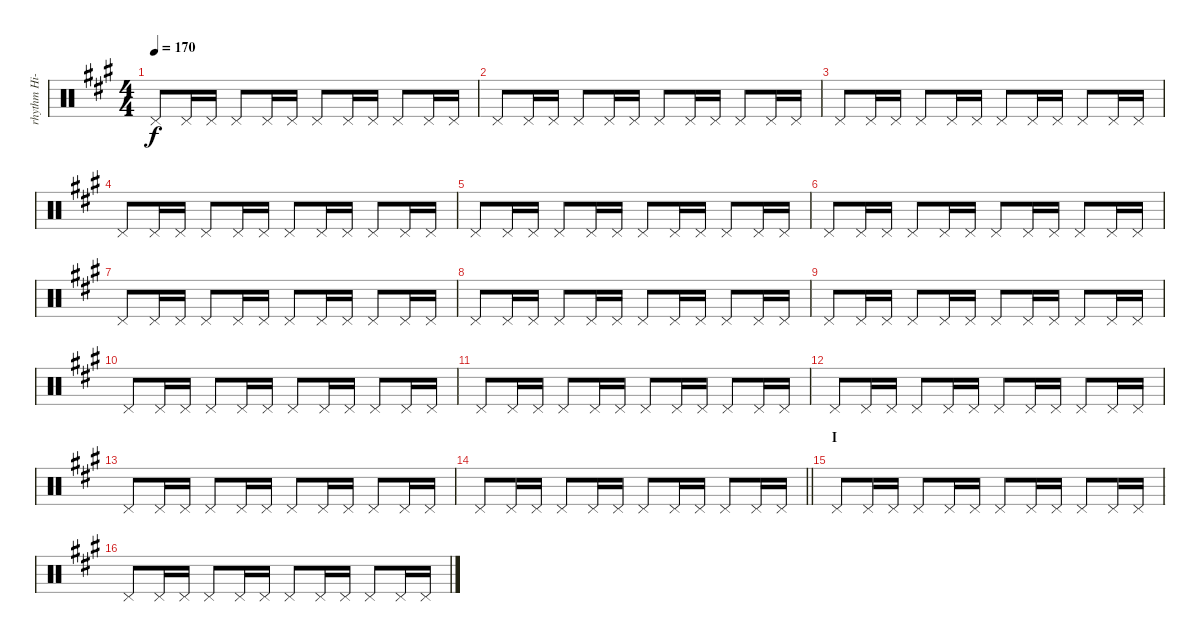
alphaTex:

\track ("rhythm Hi-hat" "rhythm Hi-") {instrument percussion}
\staff {score}
\articulation defaults
\ts (4 4)
\tempo 170
\clef neutral
\ks a "Pedal Hi-Hat (hit)".8{dy f} "Pedal Hi-Hat (hit)".16 "Pedal Hi-Hat (hit)".16 "Pedal Hi-Hat (hit)".8 "Pedal Hi-Hat (hit)".16 "Pedal Hi-Hat (hit)".16 "Pedal Hi-Hat (hit)".8 "Pedal Hi-Hat (hit)".16 "Pedal Hi-Hat (hit)".16 "Pedal Hi-Hat (hit)".8 "Pedal Hi-Hat (hit)".16 "Pedal Hi-Hat (hit)".16
|
"Pedal Hi-Hat (hit)".8 "Pedal Hi-Hat (hit)".16 "Pedal Hi-Hat (hit)".16 "Pedal Hi-Hat (hit)".8 "Pedal Hi-Hat (hit)".16 "Pedal Hi-Hat (hit)".16 "Pedal Hi-Hat (hit)".8 "Pedal Hi-Hat (hit)".16 "Pedal Hi-Hat (hit)".16 "Pedal Hi-Hat (hit)".8 "Pedal Hi-Hat (hit)".16 "Pedal Hi-Hat (hit)".16 |
"Pedal Hi-Hat (hit)".8 "Pedal Hi-Hat (hit)".16 "Pedal Hi-Hat (hit)".16 "Pedal Hi-Hat (hit)".8 "Pedal Hi-Hat (hit)".16 "Pedal Hi-Hat (hit)".16 "Pedal Hi-Hat (hit)".8 "Pedal Hi-Hat (hit)".16 "Pedal Hi-Hat (hit)".16 "Pedal Hi-Hat (hit)".8 "Pedal Hi-Hat (hit)".16 "Pedal Hi-Hat (hit)".16 |
"Pedal Hi-Hat (hit)".8 "Pedal Hi-Hat (hit)".16 "Pedal Hi-Hat (hit)".16 "Pedal Hi-Hat (hit)".8 "Pedal Hi-Hat (hit)".16 "Pedal Hi-Hat (hit)".16 "Pedal Hi-Hat (hit)".8 "Pedal Hi-Hat (hit)".16 "Pedal Hi-Hat (hit)".16 "Pedal Hi-Hat (hit)".8 "Pedal Hi-Hat (hit)".16 "Pedal Hi-Hat (hit)".16 |
"Pedal Hi-Hat (hit)".8 "Pedal Hi-Hat (hit)".16 "Pedal Hi-Hat (hit)".16 "Pedal Hi-Hat (hit)".8 "Pedal Hi-Hat (hit)".16 "Pedal Hi-Hat (hit)".16 "Pedal Hi-Hat (hit)".8 "Pedal Hi-Hat (hit)".16 "Pedal Hi-Hat (hit)".16 "Pedal Hi-Hat (hit)".8 "Pedal Hi-Hat (hit)".16 "Pedal Hi-Hat (hit)".16 |
"Pedal Hi-Hat (hit)".8 "Pedal Hi-Hat (hit)".16 "Pedal Hi-Hat (hit)".16 "Pedal Hi-Hat (hit)".8 "Pedal Hi-Hat (hit)".16 "Pedal Hi-Hat (hit)".16 "Pedal Hi-Hat (hit)".8 "Pedal Hi-Hat (hit)".16 "Pedal Hi-Hat (hit)".16 "Pedal Hi-Hat (hit)".8 "Pedal Hi-Hat (hit)".16 "Pedal Hi-Hat (hit)".16 |
"Pedal Hi-Hat (hit)".8 "Pedal Hi-Hat (hit)".16 "Pedal Hi-Hat (hit)".16 "Pedal Hi-Hat (hit)".8 "Pedal Hi-Hat (hit)".16 "Pedal Hi-Hat (hit)".16 "Pedal Hi-Hat (hit)".8 "Pedal Hi-Hat (hit)".16 "Pedal Hi-Hat (hit)".16 "Pedal Hi-Hat (hit)".8 "Pedal Hi-Hat (hit)".16 "Pedal Hi-Hat (hit)".16 |
"Pedal Hi-Hat (hit)".8 "Pedal Hi-Hat (hit)".16 "Pedal Hi-Hat (hit)".16 "Pedal Hi-Hat (hit)".8 "Pedal Hi-Hat (hit)".16 "Pedal Hi-Hat (hit)".16 "Pedal Hi-Hat (hit)".8 "Pedal Hi-Hat (hit)".16 "Pedal Hi-Hat (hit)".16 "Pedal Hi-Hat (hit)".8 "Pedal Hi-Hat (hit)".16 "Pedal Hi-Hat (hit)".16 |
"Pedal Hi-Hat (hit)".8 "Pedal Hi-Hat (hit)".16 "Pedal Hi-Hat (hit)".16 "Pedal Hi-Hat (hit)".8 "Pedal Hi-Hat (hit)".16 "Pedal Hi-Hat (hit)".16 "Pedal Hi-Hat (hit)".8 "Pedal Hi-Hat (hit)".16 "Pedal Hi-Hat (hit)".16 "Pedal Hi-Hat (hit)".8 "Pedal Hi-Hat (hit)".16 "Pedal Hi-Hat (hit)".16 |
"Pedal Hi-Hat (hit)".8 "Pedal Hi-Hat (hit)".16 "Pedal Hi-Hat (hit)".16 "Pedal Hi-Hat (hit)".8 "Pedal Hi-Hat (hit)".16 "Pedal Hi-Hat (hit)".16 "Pedal Hi-Hat (hit)".8 "Pedal Hi-Hat (hit)".16 "Pedal Hi-Hat (hit)".16 "Pedal Hi-Hat (hit)".8 "Pedal Hi-Hat (hit)".16 "Pedal Hi-Hat (hit)".16 |
"Pedal Hi-Hat (hit)".8 "Pedal Hi-Hat (hit)".16 "Pedal Hi-Hat (hit)".16 "Pedal Hi-Hat (hit)".8 "Pedal Hi-Hat (hit)".16 "Pedal Hi-Hat (hit)".16 "Pedal Hi-Hat (hit)".8 "Pedal Hi-Hat (hit)".16 "Pedal Hi-Hat (hit)".16 "Pedal Hi-Hat (hit)".8 "Pedal Hi-Hat (hit)".16 "Pedal Hi-Hat (hit)".16 |
"Pedal Hi-Hat (hit)".8 "Pedal Hi-Hat (hit)".16 "Pedal Hi-Hat (hit)".16 "Pedal Hi-Hat (hit)".8 "Pedal Hi-Hat (hit)".16 "Pedal Hi-Hat (hit)".16 "Pedal Hi-Hat (hit)".8 "Pedal Hi-Hat (hit)".16 "Pedal Hi-Hat (hit)".16 "Pedal Hi-Hat (hit)".8 "Pedal Hi-Hat (hit)".16 "Pedal Hi-Hat (hit)".16 |
"Pedal Hi-Hat (hit)".8 "Pedal Hi-Hat (hit)".16 "Pedal Hi-Hat (hit)".16 "Pedal Hi-Hat (hit)".8 "Pedal Hi-Hat (hit)".16 "Pedal Hi-Hat (hit)".16 "Pedal Hi-Hat (hit)".8 "Pedal Hi-Hat (hit)".16 "Pedal Hi-Hat (hit)".16 "Pedal Hi-Hat (hit)".8 "Pedal Hi-Hat (hit)".16 "Pedal Hi-Hat (hit)".16 |
\barLineRight lightlight "Pedal Hi-Hat (hit)".8 "Pedal Hi-Hat (hit)".16 "Pedal Hi-Hat (hit)".16 "Pedal Hi-Hat (hit)".8 "Pedal Hi-Hat (hit)".16 "Pedal Hi-Hat (hit)".16 "Pedal Hi-Hat (hit)".8 "Pedal Hi-Hat (hit)".16 "Pedal Hi-Hat (hit)".16 "Pedal Hi-Hat (hit)".8 "Pedal Hi-Hat (hit)".16 "Pedal Hi-Hat (hit)".16
|
\section ("" "I")
"Pedal Hi-Hat (hit)".8 "Pedal Hi-Hat (hit)".16 "Pedal Hi-Hat (hit)".16 "Pedal Hi-Hat (hit)".8 "Pedal Hi-Hat (hit)".16 "Pedal Hi-Hat (hit)".16 "Pedal Hi-Hat (hit)".8 "Pedal Hi-Hat (hit)".16 "Pedal Hi-Hat (hit)".16 "Pedal Hi-Hat (hit)".8 "Pedal Hi-Hat (hit)".16 "Pedal Hi-Hat (hit)".16 |
"Pedal Hi-Hat (hit)".8 "Pedal Hi-Hat (hit)".16 "Pedal Hi-Hat (hit)".16 "Pedal Hi-Hat (hit)".8 "Pedal Hi-Hat (hit)".16 "Pedal Hi-Hat (hit)".16 "Pedal Hi-Hat (hit)".8 "Pedal Hi-Hat (hit)".16 "Pedal Hi-Hat (hit)".16 "Pedal Hi-Hat (hit)".8 "Pedal Hi-Hat (hit)".16 "Pedal Hi-Hat (hit)".16
